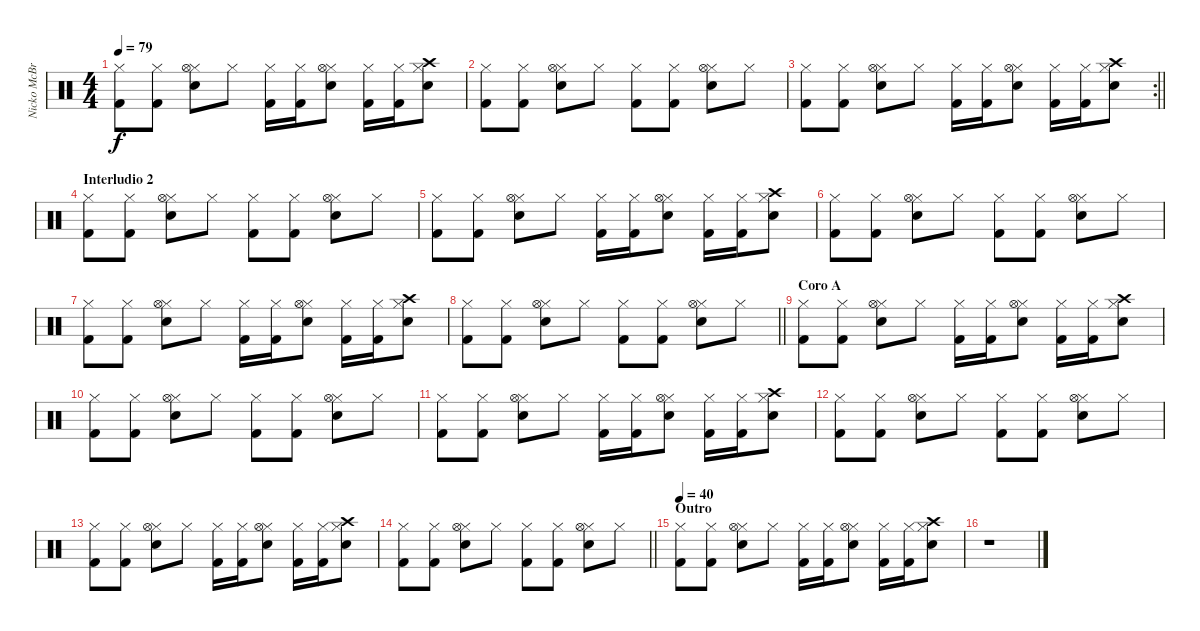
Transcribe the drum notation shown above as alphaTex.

\track ("Nicko McBrain" "Nicko McBr") {instrument percussion}
\staff {score}
\articulation defaults
\ts (4 4)
\tempo 79
\clef neutral
\ks c
("Kick (hit) 2" "Hi-Hat (closed)").8{dy f} ("Kick (hit) 2" "Hi-Hat (closed)").8 ("Snare (hit) 2" "Hi-Hat (closed)" "Hi-Hat (open)").8 "Hi-Hat (closed)".8 ("Kick (hit) 2" "Hi-Hat (closed)").16 ("Kick (hit) 2" "Hi-Hat (closed)").16 ("Snare (hit) 2" "Hi-Hat (closed)" "Hi-Hat (open)").8 ("Kick (hit) 2" "Hi-Hat (closed)").16 ("Kick (hit) 2" "Hi-Hat (closed)").16 ("Snare (hit) 2" "Hi-Hat (closed)" "Crash high (hit)").8 |
("Kick (hit) 2" "Hi-Hat (closed)").8 ("Kick (hit) 2" "Hi-Hat (closed)").8 ("Snare (hit) 2" "Hi-Hat (closed)" "Hi-Hat (open)").8 "Hi-Hat (closed)".8 ("Kick (hit) 2" "Hi-Hat (closed)").8 ("Kick (hit) 2" "Hi-Hat (closed)").8 ("Snare (hit) 2" "Hi-Hat (closed)" "Hi-Hat (open)").8 "Hi-Hat (closed)".8 |
\rc 2
\barLineRight lightlight
("Kick (hit) 2" "Hi-Hat (closed)").8 ("Kick (hit) 2" "Hi-Hat (closed)").8 ("Snare (hit) 2" "Hi-Hat (closed)" "Hi-Hat (open)").8 "Hi-Hat (closed)".8 ("Kick (hit) 2" "Hi-Hat (closed)").16 ("Kick (hit) 2" "Hi-Hat (closed)").16 ("Snare (hit) 2" "Hi-Hat (closed)" "Hi-Hat (open)").8 ("Kick (hit) 2" "Hi-Hat (closed)").16 ("Kick (hit) 2" "Hi-Hat (closed)").16 ("Snare (hit) 2" "Hi-Hat (closed)" "Crash high (hit)").8 |
\section ("" "Interludio 2")
("Kick (hit) 2" "Hi-Hat (closed)").8 ("Kick (hit) 2" "Hi-Hat (closed)").8 ("Snare (hit) 2" "Hi-Hat (closed)" "Hi-Hat (open)").8 "Hi-Hat (closed)".8 ("Kick (hit) 2" "Hi-Hat (closed)").8 ("Kick (hit) 2" "Hi-Hat (closed)").8 ("Snare (hit) 2" "Hi-Hat (closed)" "Hi-Hat (open)").8 "Hi-Hat (closed)".8 |
("Kick (hit) 2" "Hi-Hat (closed)").8 ("Kick (hit) 2" "Hi-Hat (closed)").8 ("Snare (hit) 2" "Hi-Hat (closed)" "Hi-Hat (open)").8 "Hi-Hat (closed)".8 ("Kick (hit) 2" "Hi-Hat (closed)").16 ("Kick (hit) 2" "Hi-Hat (closed)").16 ("Snare (hit) 2" "Hi-Hat (closed)" "Hi-Hat (open)").8 ("Kick (hit) 2" "Hi-Hat (closed)").16 ("Kick (hit) 2" "Hi-Hat (closed)").16 ("Snare (hit) 2" "Hi-Hat (closed)" "Crash high (hit)").8 |
("Kick (hit) 2" "Hi-Hat (closed)").8 ("Kick (hit) 2" "Hi-Hat (closed)").8 ("Snare (hit) 2" "Hi-Hat (closed)" "Hi-Hat (open)").8 "Hi-Hat (closed)".8 ("Kick (hit) 2" "Hi-Hat (closed)").8 ("Kick (hit) 2" "Hi-Hat (closed)").8 ("Snare (hit) 2" "Hi-Hat (closed)" "Hi-Hat (open)").8 "Hi-Hat (closed)".8 |
("Kick (hit) 2" "Hi-Hat (closed)").8 ("Kick (hit) 2" "Hi-Hat (closed)").8 ("Snare (hit) 2" "Hi-Hat (closed)" "Hi-Hat (open)").8 "Hi-Hat (closed)".8 ("Kick (hit) 2" "Hi-Hat (closed)").16 ("Kick (hit) 2" "Hi-Hat (closed)").16 ("Snare (hit) 2" "Hi-Hat (closed)" "Hi-Hat (open)").8 ("Kick (hit) 2" "Hi-Hat (closed)").16 ("Kick (hit) 2" "Hi-Hat (closed)").16 ("Snare (hit) 2" "Hi-Hat (closed)" "Crash high (hit)").8 |
\barLineRight lightlight
("Kick (hit) 2" "Hi-Hat (closed)").8 ("Kick (hit) 2" "Hi-Hat (closed)").8 ("Snare (hit) 2" "Hi-Hat (closed)" "Hi-Hat (open)").8 "Hi-Hat (closed)".8 ("Kick (hit) 2" "Hi-Hat (closed)").8 ("Kick (hit) 2" "Hi-Hat (closed)").8 ("Snare (hit) 2" "Hi-Hat (closed)" "Hi-Hat (open)").8 "Hi-Hat (closed)".8 |
\section ("" "Coro A")
("Kick (hit) 2" "Hi-Hat (closed)").8 ("Kick (hit) 2" "Hi-Hat (closed)").8 ("Snare (hit) 2" "Hi-Hat (closed)" "Hi-Hat (open)").8 "Hi-Hat (closed)".8 ("Kick (hit) 2" "Hi-Hat (closed)").16 ("Kick (hit) 2" "Hi-Hat (closed)").16 ("Snare (hit) 2" "Hi-Hat (closed)" "Hi-Hat (open)").8 ("Kick (hit) 2" "Hi-Hat (closed)").16 ("Kick (hit) 2" "Hi-Hat (closed)").16 ("Snare (hit) 2" "Hi-Hat (closed)" "Crash high (hit)").8 |
("Kick (hit) 2" "Hi-Hat (closed)").8 ("Kick (hit) 2" "Hi-Hat (closed)").8 ("Snare (hit) 2" "Hi-Hat (closed)" "Hi-Hat (open)").8 "Hi-Hat (closed)".8 ("Kick (hit) 2" "Hi-Hat (closed)").8 ("Kick (hit) 2" "Hi-Hat (closed)").8 ("Snare (hit) 2" "Hi-Hat (closed)" "Hi-Hat (open)").8 "Hi-Hat (closed)".8 |
("Kick (hit) 2" "Hi-Hat (closed)").8 ("Kick (hit) 2" "Hi-Hat (closed)").8 ("Snare (hit) 2" "Hi-Hat (closed)" "Hi-Hat (open)").8 "Hi-Hat (closed)".8 ("Kick (hit) 2" "Hi-Hat (closed)").16 ("Kick (hit) 2" "Hi-Hat (closed)").16 ("Snare (hit) 2" "Hi-Hat (closed)" "Hi-Hat (open)").8 ("Kick (hit) 2" "Hi-Hat (closed)").16 ("Kick (hit) 2" "Hi-Hat (closed)").16 ("Snare (hit) 2" "Hi-Hat (closed)" "Crash high (hit)").8 |
("Kick (hit) 2" "Hi-Hat (closed)").8 ("Kick (hit) 2" "Hi-Hat (closed)").8 ("Snare (hit) 2" "Hi-Hat (closed)" "Hi-Hat (open)").8 "Hi-Hat (closed)".8 ("Kick (hit) 2" "Hi-Hat (closed)").8 ("Kick (hit) 2" "Hi-Hat (closed)").8 ("Snare (hit) 2" "Hi-Hat (closed)" "Hi-Hat (open)").8 "Hi-Hat (closed)".8 |
("Kick (hit) 2" "Hi-Hat (closed)").8 ("Kick (hit) 2" "Hi-Hat (closed)").8 ("Snare (hit) 2" "Hi-Hat (closed)" "Hi-Hat (open)").8 "Hi-Hat (closed)".8 ("Kick (hit) 2" "Hi-Hat (closed)").16 ("Kick (hit) 2" "Hi-Hat (closed)").16 ("Snare (hit) 2" "Hi-Hat (closed)" "Hi-Hat (open)").8 ("Kick (hit) 2" "Hi-Hat (closed)").16 ("Kick (hit) 2" "Hi-Hat (closed)").16 ("Snare (hit) 2" "Hi-Hat (closed)" "Crash high (hit)").8 |
\barLineRight lightlight
("Kick (hit) 2" "Hi-Hat (closed)").8 ("Kick (hit) 2" "Hi-Hat (closed)").8 ("Snare (hit) 2" "Hi-Hat (closed)" "Hi-Hat (open)").8 "Hi-Hat (closed)".8 ("Kick (hit) 2" "Hi-Hat (closed)").8 ("Kick (hit) 2" "Hi-Hat (closed)").8 ("Snare (hit) 2" "Hi-Hat (closed)" "Hi-Hat (open)").8 "Hi-Hat (closed)".8 |
\section ("" "Outro")
\tempo 40
("Kick (hit) 2" "Hi-Hat (closed)").8 ("Kick (hit) 2" "Hi-Hat (closed)").8 ("Snare (hit) 2" "Hi-Hat (closed)" "Hi-Hat (open)").8 "Hi-Hat (closed)".8 ("Kick (hit) 2" "Hi-Hat (closed)").16 ("Kick (hit) 2" "Hi-Hat (closed)").16 ("Snare (hit) 2" "Hi-Hat (closed)" "Hi-Hat (open)").8 ("Kick (hit) 2" "Hi-Hat (closed)").16 ("Kick (hit) 2" "Hi-Hat (closed)").16 ("Snare (hit) 2" "Hi-Hat (closed)" "Crash high (hit)").8 |
r.1
